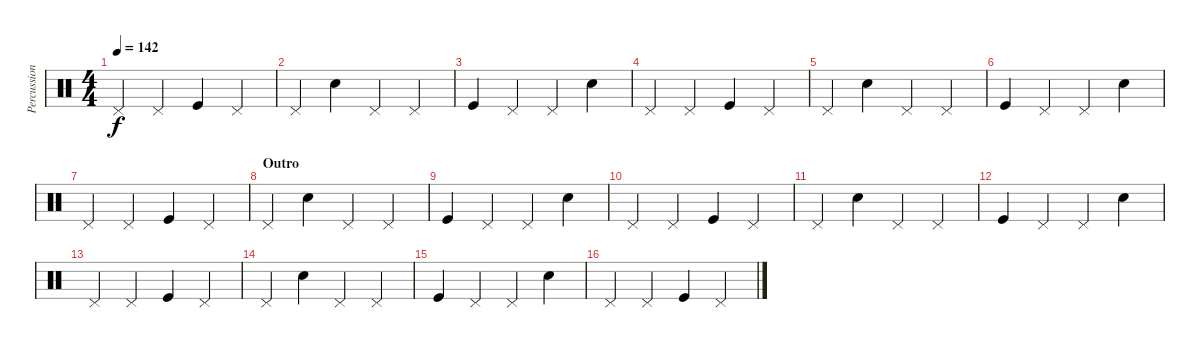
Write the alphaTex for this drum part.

\track ("Percussion" "Percussion") {instrument percussion}
\staff {score}
\articulation defaults
\ts (4 4)
\tempo 142
\clef neutral
\ks c "Pedal Hi-Hat (hit)".4{dy f} "Pedal Hi-Hat (hit)".4 "Kick (hit)".4 "Pedal Hi-Hat (hit)".4
|
"Pedal Hi-Hat (hit)".4 "Electric Snare (hit)".4 "Pedal Hi-Hat (hit)".4 "Pedal Hi-Hat (hit)".4 |
"Kick (hit)".4 "Pedal Hi-Hat (hit)".4 "Pedal Hi-Hat (hit)".4 "Electric Snare (hit)".4 |
"Pedal Hi-Hat (hit)".4 "Pedal Hi-Hat (hit)".4 "Kick (hit)".4 "Pedal Hi-Hat (hit)".4 |
"Pedal Hi-Hat (hit)".4 "Electric Snare (hit)".4 "Pedal Hi-Hat (hit)".4 "Pedal Hi-Hat (hit)".4 |
"Kick (hit)".4 "Pedal Hi-Hat (hit)".4 "Pedal Hi-Hat (hit)".4 "Electric Snare (hit)".4 |
"Pedal Hi-Hat (hit)".4 "Pedal Hi-Hat (hit)".4 "Kick (hit)".4 "Pedal Hi-Hat (hit)".4 |
\section ("" "Outro")
"Pedal Hi-Hat (hit)".4 "Electric Snare (hit)".4 "Pedal Hi-Hat (hit)".4 "Pedal Hi-Hat (hit)".4 |
"Kick (hit)".4 "Pedal Hi-Hat (hit)".4 "Pedal Hi-Hat (hit)".4 "Electric Snare (hit)".4 |
"Pedal Hi-Hat (hit)".4 "Pedal Hi-Hat (hit)".4 "Kick (hit)".4 "Pedal Hi-Hat (hit)".4 |
"Pedal Hi-Hat (hit)".4 "Electric Snare (hit)".4 "Pedal Hi-Hat (hit)".4 "Pedal Hi-Hat (hit)".4 |
"Kick (hit)".4 "Pedal Hi-Hat (hit)".4 "Pedal Hi-Hat (hit)".4 "Electric Snare (hit)".4 |
"Pedal Hi-Hat (hit)".4 "Pedal Hi-Hat (hit)".4 "Kick (hit)".4 "Pedal Hi-Hat (hit)".4 |
"Pedal Hi-Hat (hit)".4 "Electric Snare (hit)".4 "Pedal Hi-Hat (hit)".4 "Pedal Hi-Hat (hit)".4 |
"Kick (hit)".4 "Pedal Hi-Hat (hit)".4 "Pedal Hi-Hat (hit)".4 "Electric Snare (hit)".4 |
"Pedal Hi-Hat (hit)".4 "Pedal Hi-Hat (hit)".4 "Kick (hit)".4 "Pedal Hi-Hat (hit)".4
